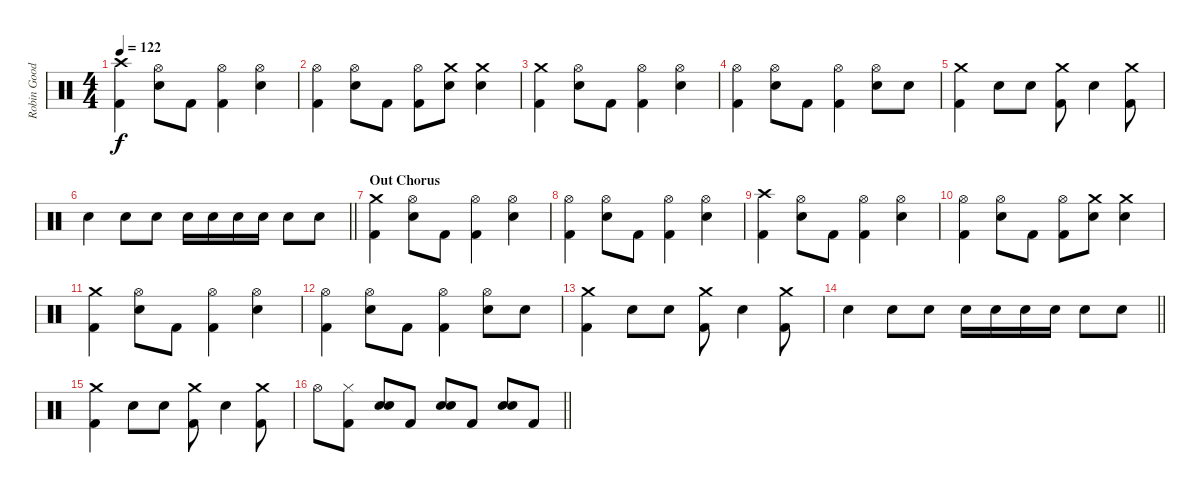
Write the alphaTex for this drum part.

\track ("Robin Goodridge: Drums" "Robin Good") {instrument percussion}
\staff {score}
\articulation defaults
\ts (4 4)
\tempo 122
\clef neutral
\ks c
("Crash high (hit)" "Kick (hit) 2").4{dy f} ("Hi-Hat (open)" "Electric Snare (hit)").8 "Kick (hit) 2".8 ("Hi-Hat (open)" "Kick (hit) 2").4 ("Hi-Hat (open)" "Electric Snare (hit)").4 |
("Hi-Hat (open)" "Kick (hit) 2").4 ("Hi-Hat (open)" "Electric Snare (hit)").8 "Kick (hit) 2".8 ("Hi-Hat (open)" "Kick (hit) 2").8 ("Crash medium (hit)" "Electric Snare (hit)").8 ("Crash medium (hit)" "Electric Snare (hit)").4 |
("Crash medium (hit)" "Kick (hit) 2").4 ("Hi-Hat (open)" "Electric Snare (hit)").8 "Kick (hit) 2".8 ("Hi-Hat (open)" "Kick (hit) 2").4 ("Hi-Hat (open)" "Electric Snare (hit)").4 |
("Hi-Hat (open)" "Kick (hit) 2").4 ("Hi-Hat (open)" "Electric Snare (hit)").8 "Kick (hit) 2".8 ("Hi-Hat (open)" "Kick (hit) 2").4 ("Hi-Hat (open)" "Electric Snare (hit)").8 "Electric Snare (hit)".8 |
("Crash medium (hit)" "Kick (hit) 2").4 "Electric Snare (hit)".8 "Electric Snare (hit)".8 ("Crash medium (hit)" "Kick (hit) 2").8 "Electric Snare (hit)".4 ("Crash medium (hit)" "Kick (hit) 2").8 |
\barLineRight lightlight "Electric Snare (hit)".4 "Electric Snare (hit)".8 "Electric Snare (hit)".8 "Electric Snare (hit)".16 "Electric Snare (hit)".16 "Electric Snare (hit)".16 "Electric Snare (hit)".16 "Electric Snare (hit)".8 "Electric Snare (hit)".8
|
\section ("" "Out Chorus")
("Crash medium (hit)" "Kick (hit) 2").4 ("Hi-Hat (open)" "Electric Snare (hit)").8 "Kick (hit) 2".8 ("Hi-Hat (open)" "Kick (hit) 2").4 ("Hi-Hat (open)" "Electric Snare (hit)").4 |
("Hi-Hat (open)" "Kick (hit) 2").4 ("Hi-Hat (open)" "Electric Snare (hit)").8 "Kick (hit) 2".8 ("Hi-Hat (open)" "Kick (hit) 2").4 ("Hi-Hat (open)" "Electric Snare (hit)").4 |
("Crash high (hit)" "Kick (hit) 2").4 ("Hi-Hat (open)" "Electric Snare (hit)").8 "Kick (hit) 2".8 ("Hi-Hat (open)" "Kick (hit) 2").4 ("Hi-Hat (open)" "Electric Snare (hit)").4 |
("Hi-Hat (open)" "Kick (hit) 2").4 ("Hi-Hat (open)" "Electric Snare (hit)").8 "Kick (hit) 2".8 ("Hi-Hat (open)" "Kick (hit) 2").8 ("Crash medium (hit)" "Electric Snare (hit)").8 ("Crash medium (hit)" "Electric Snare (hit)").4 |
("Crash medium (hit)" "Kick (hit) 2").4 ("Hi-Hat (open)" "Electric Snare (hit)").8 "Kick (hit) 2".8 ("Hi-Hat (open)" "Kick (hit) 2").4 ("Hi-Hat (open)" "Electric Snare (hit)").4 |
("Hi-Hat (open)" "Kick (hit) 2").4 ("Hi-Hat (open)" "Electric Snare (hit)").8 "Kick (hit) 2".8 ("Hi-Hat (open)" "Kick (hit) 2").4 ("Hi-Hat (open)" "Electric Snare (hit)").8 "Electric Snare (hit)".8 |
("Crash medium (hit)" "Kick (hit) 2").4 "Electric Snare (hit)".8 "Electric Snare (hit)".8 ("Crash medium (hit)" "Kick (hit) 2").8 "Electric Snare (hit)".4 ("Crash medium (hit)" "Kick (hit) 2").8 |
\barLineRight lightlight "Electric Snare (hit)".4 "Electric Snare (hit)".8 "Electric Snare (hit)".8 "Electric Snare (hit)".16 "Electric Snare (hit)".16 "Electric Snare (hit)".16 "Electric Snare (hit)".16 "Electric Snare (hit)".8 "Electric Snare (hit)".8
|
("Crash medium (hit)" "Kick (hit) 2").4 "Electric Snare (hit)".8 "Electric Snare (hit)".8 ("Crash medium (hit)" "Kick (hit) 2").8 "Electric Snare (hit)".4 ("Crash medium (hit)" "Kick (hit) 2").8 |
\barLineRight lightlight "Hi-Hat (open)".8
("Hi-Hat (closed)" "Kick (hit) 2").8 ("Electric Snare (hit)" "Electric Snare (hit)").8 "Kick (hit) 2".8 ("Electric Snare (hit)" "Electric Snare (hit)").8 "Kick (hit) 2".8 ("Electric Snare (hit)" "Electric Snare (hit)").8 "Kick (hit) 2".8
